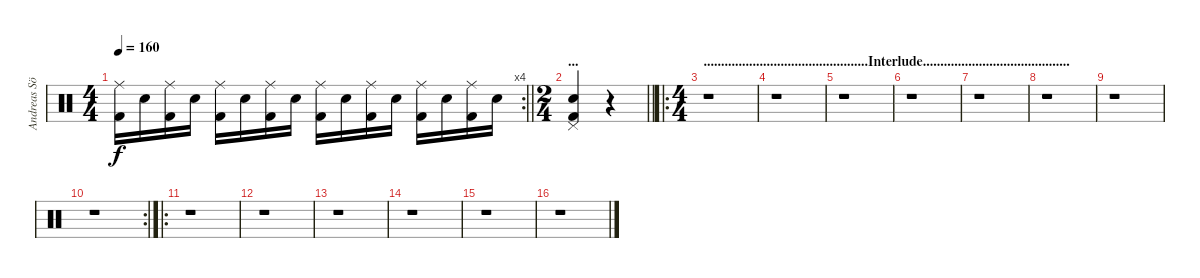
\track ("Andreas Söderlund" "Andreas Sö") {instrument percussion}
\staff {score}
\articulation defaults
\rc 4
\ts (4 4)
\tempo 160
\clef neutral
\barLineRight lightlight
\ks c
("Ride (middle)" "Kick (hit) 2").16{dy f} "Electric Snare (hit)".16 ("Ride (middle)" "Kick (hit) 2").16 "Electric Snare (hit)".16 ("Ride (middle)" "Kick (hit) 2").16 "Electric Snare (hit)".16 ("Ride (middle)" "Kick (hit) 2").16 "Electric Snare (hit)".16 ("Ride (middle)" "Kick (hit) 2").16 "Electric Snare (hit)".16 ("Ride (middle)" "Kick (hit) 2").16 "Electric Snare (hit)".16 ("Ride (middle)" "Kick (hit) 2").16 "Electric Snare (hit)".16 ("Ride (middle)" "Kick (hit) 2").16 "Electric Snare (hit)".16 |
\ts (2 4)
\section ("" "...")
\barLineRight lightlight
("Pedal Hi-Hat (hit)" "Electric Snare (hit)" "Kick (hit) 2").4 r.4 |
\ro
\ts (4 4)
\section ("" "...............................................Interlude..........................................")
r.1 |
r.1 |
r.1 |
r.1 |
r.1 |
r.1 |
r.1 |
\rc 2
r.1 |
\ro
r.1 |
r.1 |
r.1 |
r.1 |
r.1 |
r.1
